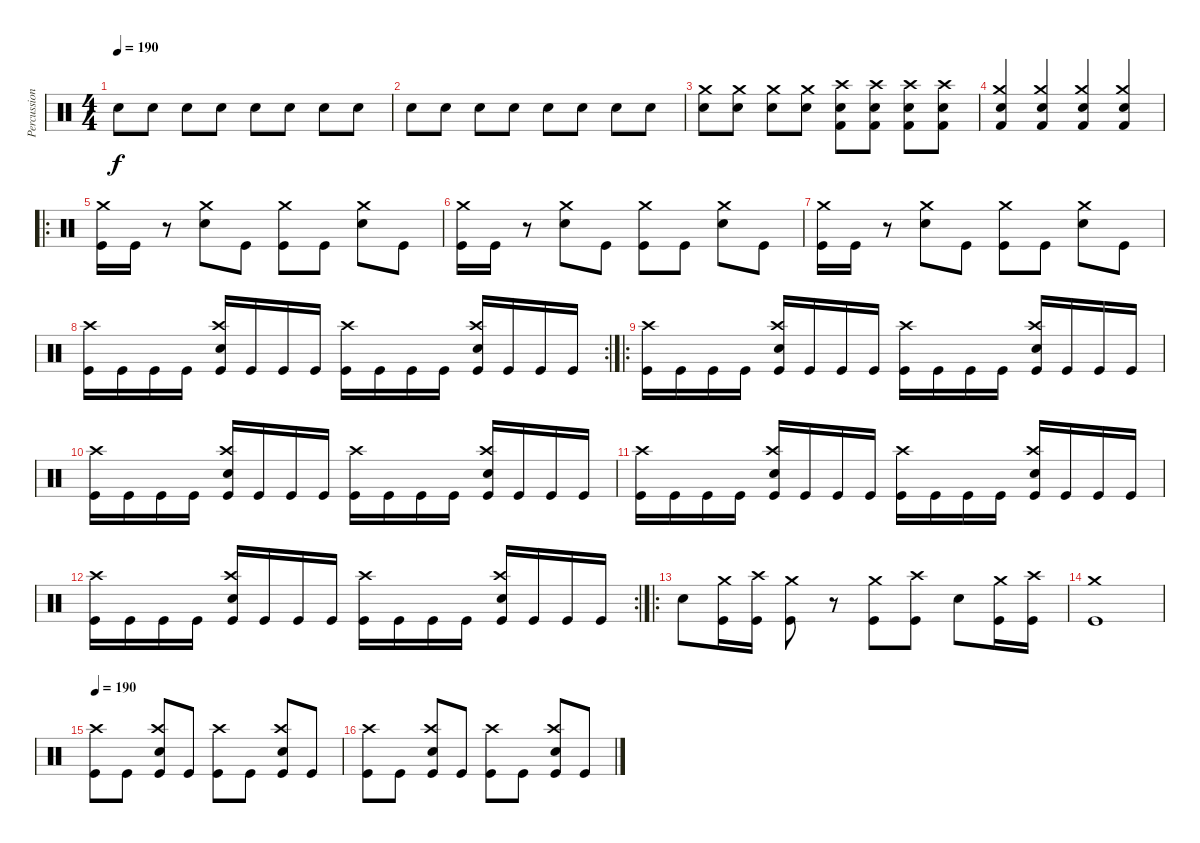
\track ("Percussion" "Percussion") {instrument percussion}
\staff {score}
\articulation defaults
\ts (4 4)
\tempo 190
\clef neutral
\ks c "Snare (hit) 2".8{dy f} "Snare (hit) 2".8 "Snare (hit) 2".8 "Snare (hit) 2".8 "Snare (hit) 2".8 "Snare (hit) 2".8 "Snare (hit) 2".8 "Snare (hit) 2".8
|
"Snare (hit) 2".8 "Snare (hit) 2".8 "Snare (hit) 2".8 "Snare (hit) 2".8 "Snare (hit) 2".8 "Snare (hit) 2".8 "Snare (hit) 2".8 "Snare (hit) 2".8 |
("Crash medium (hit)" "Snare (hit) 2").8 ("Crash medium (hit)" "Snare (hit) 2").8 ("Crash medium (hit)" "Snare (hit) 2").8 ("Crash medium (hit)" "Snare (hit) 2").8 ("Kick (hit) 2" "Crash high (hit)" "Snare (hit) 2").8 ("Kick (hit) 2" "Crash high (hit)" "Snare (hit) 2").8 ("Kick (hit) 2" "Crash high (hit)" "Snare (hit) 2").8 ("Kick (hit) 2" "Crash high (hit)" "Snare (hit) 2").8 |
("Crash medium (hit)" "Snare (hit) 2" "Kick (hit) 2").4 ("Crash medium (hit)" "Snare (hit) 2" "Kick (hit) 2").4 ("Crash medium (hit)" "Snare (hit) 2" "Kick (hit) 2").4 ("Crash medium (hit)" "Snare (hit) 2" "Kick (hit) 2").4 |
\ro
("Crash medium (hit)" "Kick (hit)").16 "Kick (hit)".16 r.8 ("Crash medium (hit)" "Snare (hit) 2").8 "Kick (hit)".8 ("Crash medium (hit)" "Kick (hit)").8 "Kick (hit)".8 ("Crash medium (hit)" "Snare (hit) 2").8 "Kick (hit)".8 |
("Crash medium (hit)" "Kick (hit)").16 "Kick (hit)".16 r.8 ("Crash medium (hit)" "Snare (hit) 2").8 "Kick (hit)".8 ("Crash medium (hit)" "Kick (hit)").8 "Kick (hit)".8 ("Crash medium (hit)" "Snare (hit) 2").8 "Kick (hit)".8 |
("Crash medium (hit)" "Kick (hit)").16 "Kick (hit)".16 r.8 ("Crash medium (hit)" "Snare (hit) 2").8 "Kick (hit)".8 ("Crash medium (hit)" "Kick (hit)").8 "Kick (hit)".8 ("Crash medium (hit)" "Snare (hit) 2").8 "Kick (hit)".8 |
\rc 2
("Crash high (hit)" "Kick (hit)").16 "Kick (hit)".16 "Kick (hit)".16 "Kick (hit)".16 ("Crash high (hit)" "Snare (hit) 2" "Kick (hit)").16 "Kick (hit)".16 "Kick (hit)".16 "Kick (hit)".16 ("Crash high (hit)" "Kick (hit)").16 "Kick (hit)".16 "Kick (hit)".16 "Kick (hit)".16 ("Crash high (hit)" "Snare (hit) 2" "Kick (hit)").16 "Kick (hit)".16 "Kick (hit)".16 "Kick (hit)".16 |
\ro
("Crash high (hit)" "Kick (hit)").16 "Kick (hit)".16 "Kick (hit)".16 "Kick (hit)".16 ("Crash high (hit)" "Snare (hit) 2" "Kick (hit)").16 "Kick (hit)".16 "Kick (hit)".16 "Kick (hit)".16 ("Crash high (hit)" "Kick (hit)").16 "Kick (hit)".16 "Kick (hit)".16 "Kick (hit)".16 ("Crash high (hit)" "Snare (hit) 2" "Kick (hit)").16 "Kick (hit)".16 "Kick (hit)".16 "Kick (hit)".16 |
("Crash high (hit)" "Kick (hit)").16 "Kick (hit)".16 "Kick (hit)".16 "Kick (hit)".16 ("Crash high (hit)" "Snare (hit) 2" "Kick (hit)").16 "Kick (hit)".16 "Kick (hit)".16 "Kick (hit)".16 ("Crash high (hit)" "Kick (hit)").16 "Kick (hit)".16 "Kick (hit)".16 "Kick (hit)".16 ("Crash high (hit)" "Snare (hit) 2" "Kick (hit)").16 "Kick (hit)".16 "Kick (hit)".16 "Kick (hit)".16 |
("Crash high (hit)" "Kick (hit)").16 "Kick (hit)".16 "Kick (hit)".16 "Kick (hit)".16 ("Crash high (hit)" "Snare (hit) 2" "Kick (hit)").16 "Kick (hit)".16 "Kick (hit)".16 "Kick (hit)".16 ("Crash high (hit)" "Kick (hit)").16 "Kick (hit)".16 "Kick (hit)".16 "Kick (hit)".16 ("Crash high (hit)" "Snare (hit) 2" "Kick (hit)").16 "Kick (hit)".16 "Kick (hit)".16 "Kick (hit)".16 |
\rc 2
("Crash high (hit)" "Kick (hit)").16 "Kick (hit)".16 "Kick (hit)".16 "Kick (hit)".16 ("Crash high (hit)" "Snare (hit) 2" "Kick (hit)").16 "Kick (hit)".16 "Kick (hit)".16 "Kick (hit)".16 ("Crash high (hit)" "Kick (hit)").16 "Kick (hit)".16 "Kick (hit)".16 "Kick (hit)".16 ("Crash high (hit)" "Snare (hit) 2" "Kick (hit)").16 "Kick (hit)".16 "Kick (hit)".16 "Kick (hit)".16 |
\ro "Snare (hit) 2".8
("Crash medium (hit)" "Kick (hit)").16 ("Crash high (hit)" "Kick (hit)").16 ("Crash medium (hit)" "Kick (hit)").8 r.8 ("Crash medium (hit)" "Kick (hit)").8 ("Crash high (hit)" "Kick (hit)").8 "Snare (hit) 2".8 ("Crash medium (hit)" "Kick (hit)").16 ("Crash high (hit)" "Kick (hit)").16 |
("Crash medium (hit)" "Kick (hit)").1 |
\tempo 190
("Crash high (hit)" "Kick (hit)").8 "Kick (hit)".8 ("Crash high (hit)" "Snare (hit) 2" "Kick (hit)").8 "Kick (hit)".8 ("Crash high (hit)" "Kick (hit)").8 "Kick (hit)".8 ("Crash high (hit)" "Snare (hit) 2" "Kick (hit)").8 "Kick (hit)".8 |
("Crash high (hit)" "Kick (hit)").8 "Kick (hit)".8 ("Crash high (hit)" "Snare (hit) 2" "Kick (hit)").8 "Kick (hit)".8 ("Crash high (hit)" "Kick (hit)").8 "Kick (hit)".8 ("Crash high (hit)" "Snare (hit) 2" "Kick (hit)").8 "Kick (hit)".8
